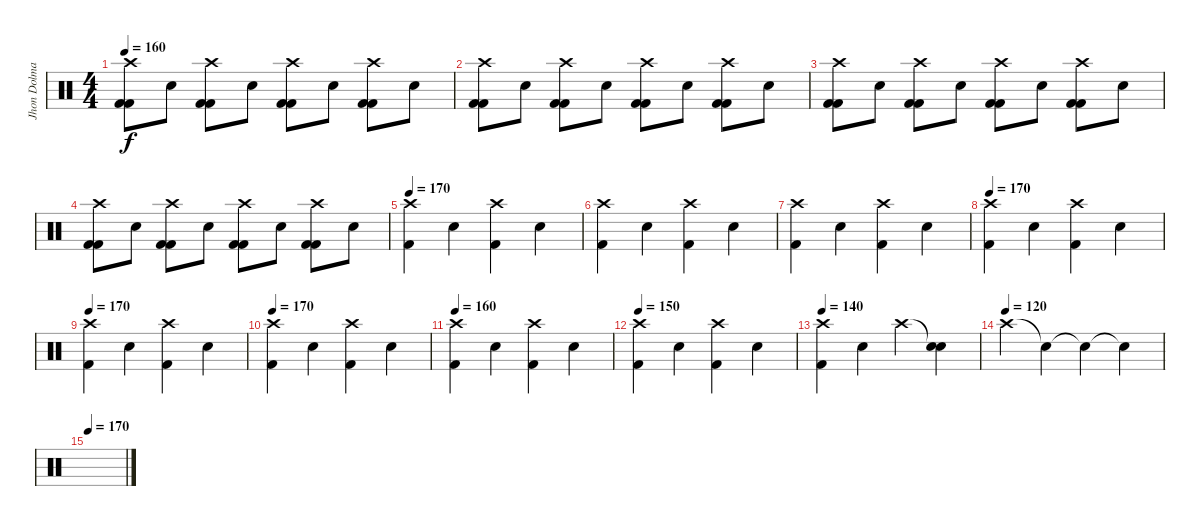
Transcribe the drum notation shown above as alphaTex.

\track ("Jhon Dolmayan(Drum)" "Jhon Dolma") {instrument percussion}
\staff {score}
\articulation defaults
\ts (4 4)
\tempo 160
\clef neutral
\ks c
("Crash high (hit)" "Kick (hit) 2" "Kick (hit) 2").8{dy f} "Electric Snare (hit)".8 ("Crash high (hit)" "Kick (hit) 2" "Kick (hit) 2").8 "Electric Snare (hit)".8 ("Crash high (hit)" "Kick (hit) 2" "Kick (hit) 2").8 "Electric Snare (hit)".8 ("Crash high (hit)" "Kick (hit) 2" "Kick (hit) 2").8 "Electric Snare (hit)".8 |
("Crash high (hit)" "Kick (hit) 2" "Kick (hit) 2").8 "Electric Snare (hit)".8 ("Crash high (hit)" "Kick (hit) 2" "Kick (hit) 2").8 "Electric Snare (hit)".8 ("Crash high (hit)" "Kick (hit) 2" "Kick (hit) 2").8 "Electric Snare (hit)".8 ("Crash high (hit)" "Kick (hit) 2" "Kick (hit) 2").8 "Electric Snare (hit)".8 |
("Crash high (hit)" "Kick (hit) 2" "Kick (hit) 2").8 "Electric Snare (hit)".8 ("Crash high (hit)" "Kick (hit) 2" "Kick (hit) 2").8 "Electric Snare (hit)".8 ("Crash high (hit)" "Kick (hit) 2" "Kick (hit) 2").8 "Electric Snare (hit)".8 ("Crash high (hit)" "Kick (hit) 2" "Kick (hit) 2").8 "Electric Snare (hit)".8 |
("Crash high (hit)" "Kick (hit) 2" "Kick (hit) 2").8 "Electric Snare (hit)".8 ("Crash high (hit)" "Kick (hit) 2" "Kick (hit) 2").8 "Electric Snare (hit)".8 ("Crash high (hit)" "Kick (hit) 2" "Kick (hit) 2").8 "Electric Snare (hit)".8 ("Crash high (hit)" "Kick (hit) 2" "Kick (hit) 2").8 "Electric Snare (hit)".8 |
\tempo 170
("Crash high (hit)" "Kick (hit) 2").4 "Electric Snare (hit)".4 ("Crash high (hit)" "Kick (hit) 2").4 "Electric Snare (hit)".4 |
("Crash high (hit)" "Kick (hit) 2").4 "Electric Snare (hit)".4 ("Crash high (hit)" "Kick (hit) 2").4 "Electric Snare (hit)".4 |
("Crash high (hit)" "Kick (hit) 2").4 "Electric Snare (hit)".4 ("Crash high (hit)" "Kick (hit) 2").4 "Electric Snare (hit)".4 |
\tempo 170
("Crash high (hit)" "Kick (hit) 2").4 "Electric Snare (hit)".4 ("Crash high (hit)" "Kick (hit) 2").4 "Electric Snare (hit)".4 |
\tempo 170
("Crash high (hit)" "Kick (hit) 2").4 "Electric Snare (hit)".4 ("Crash high (hit)" "Kick (hit) 2").4 "Electric Snare (hit)".4 |
\tempo 170
("Crash high (hit)" "Kick (hit) 2").4 "Electric Snare (hit)".4 ("Crash high (hit)" "Kick (hit) 2").4 "Electric Snare (hit)".4 |
\tempo 160
("Crash high (hit)" "Kick (hit) 2").4 "Electric Snare (hit)".4 ("Crash high (hit)" "Kick (hit) 2").4 "Electric Snare (hit)".4 |
\tempo 150
("Crash high (hit)" "Kick (hit) 2").4 "Electric Snare (hit)".4 ("Crash high (hit)" "Kick (hit) 2").4 "Electric Snare (hit)".4 |
\tempo 140
("Crash high (hit)" "Kick (hit) 2").4 "Electric Snare (hit)".4 "Crash high (hit)".4 ("Snare (hit)"{t} "Electric Snare (hit)").4 |
\tempo (120)
"Crash high (hit)".4 "Snare (hit)"{t}.4 "Snare (hit)"{t}.4 "Snare (hit)"{t}.4 |
\tempo 170
